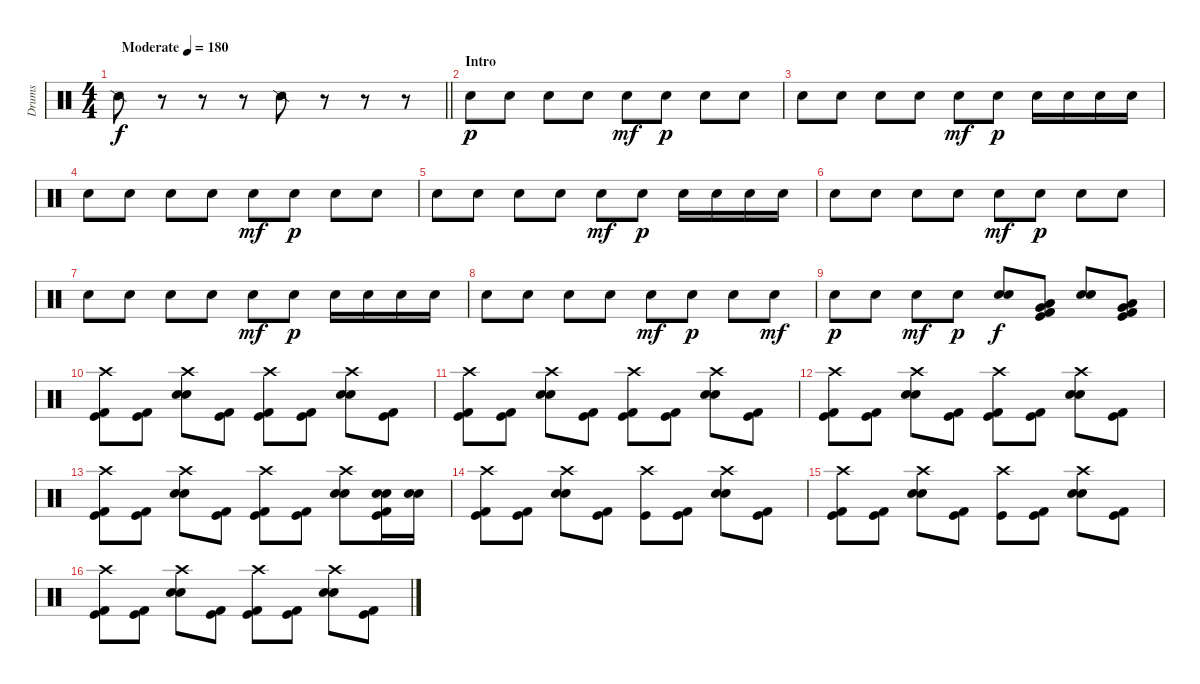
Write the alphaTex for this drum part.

\track ("Drums" "Drums") {instrument percussion}
\staff {score}
\articulation defaults
\ts (4 4)
\tempo (180 "Moderate")
\clef neutral
\barLineRight lightlight
\ks c "Snare (side stick) 2".8{dy f}
r.8 r.8 r.8 "Snare (side stick) 2".8 r.8 r.8 r.8 |
\section ("" "Intro")
"Snare (hit) 2".8{dy p} "Snare (hit) 2".8 "Snare (hit) 2".8 "Snare (hit) 2".8 "Snare (hit) 2".8{dy mf} "Snare (hit) 2".8{dy p} "Snare (hit) 2".8 "Snare (hit) 2".8 |
"Snare (hit) 2".8 "Snare (hit) 2".8 "Snare (hit) 2".8 "Snare (hit) 2".8 "Snare (hit) 2".8{dy mf} "Snare (hit) 2".8{dy p} "Snare (hit) 2".16 "Snare (hit) 2".16 "Snare (hit) 2".16 "Snare (hit) 2".16 |
"Snare (hit) 2".8 "Snare (hit) 2".8 "Snare (hit) 2".8 "Snare (hit) 2".8 "Snare (hit) 2".8{dy mf} "Snare (hit) 2".8{dy p} "Snare (hit) 2".8 "Snare (hit) 2".8 |
"Snare (hit) 2".8 "Snare (hit) 2".8 "Snare (hit) 2".8 "Snare (hit) 2".8 "Snare (hit) 2".8{dy mf} "Snare (hit) 2".8{dy p} "Snare (hit) 2".16 "Snare (hit) 2".16 "Snare (hit) 2".16 "Snare (hit) 2".16 |
"Snare (hit) 2".8 "Snare (hit) 2".8 "Snare (hit) 2".8 "Snare (hit) 2".8 "Snare (hit) 2".8{dy mf} "Snare (hit) 2".8{dy p} "Snare (hit) 2".8 "Snare (hit) 2".8 |
"Snare (hit) 2".8 "Snare (hit) 2".8 "Snare (hit) 2".8 "Snare (hit) 2".8 "Snare (hit) 2".8{dy mf} "Snare (hit) 2".8{dy p} "Snare (hit) 2".16 "Snare (hit) 2".16 "Snare (hit) 2".16 "Snare (hit) 2".16 |
"Snare (hit) 2".8 "Snare (hit) 2".8 "Snare (hit) 2".8 "Snare (hit) 2".8 "Snare (hit) 2".8{dy mf} "Snare (hit) 2".8{dy p} "Snare (hit) 2".8 "Snare (hit) 2".8{dy mf} |
"Snare (hit) 2".8{dy p} "Snare (hit) 2".8 "Snare (hit) 2".8{dy mf} "Snare (hit) 2".8{dy p} ("Electric Snare (hit)" "Snare (hit) 2").8{dy f} ("Low Tom (hit)" "Very Low Tom (hit)" "Kick (hit) 2" "Kick (hit)").8 ("Electric Snare (hit)" "Snare (hit) 2").8 ("Very Low Tom (hit)" "Low Floor Tom (hit)" "Kick (hit) 2" "Kick (hit)").8 |
("Kick (hit)" "Crash high (hit)" "Kick (hit) 2").8 ("Kick (hit)" "Kick (hit) 2").8 ("Electric Snare (hit)" "Crash high (hit)" "Snare (hit) 2").8 ("Kick (hit)" "Kick (hit) 2").8 ("Kick (hit)" "Crash high (hit)" "Kick (hit) 2").8 ("Kick (hit)" "Kick (hit) 2").8 ("Electric Snare (hit)" "Snare (hit) 2" "Crash high (hit)").8 ("Kick (hit)" "Kick (hit) 2").8 |
("Kick (hit)" "Crash high (hit)" "Kick (hit) 2").8 ("Kick (hit)" "Kick (hit) 2").8 ("Electric Snare (hit)" "Snare (hit) 2" "Crash high (hit)").8 ("Kick (hit)" "Kick (hit) 2").8 ("Kick (hit)" "Crash high (hit)" "Kick (hit) 2").8 ("Kick (hit)" "Kick (hit) 2").8 ("Electric Snare (hit)" "Snare (hit) 2" "Crash high (hit)").8 ("Kick (hit)" "Kick (hit) 2").8 |
("Kick (hit)" "Crash high (hit)" "Kick (hit) 2").8 ("Kick (hit)" "Kick (hit) 2").8 ("Electric Snare (hit)" "Snare (hit) 2" "Crash high (hit)").8 ("Kick (hit)" "Kick (hit) 2").8 ("Kick (hit)" "Crash high (hit)" "Kick (hit) 2").8 ("Kick (hit)" "Kick (hit) 2").8 ("Electric Snare (hit)" "Snare (hit) 2" "Crash high (hit)").8 ("Kick (hit)" "Kick (hit) 2").8 |
("Kick (hit)" "Crash high (hit)" "Kick (hit) 2").8 ("Kick (hit)" "Kick (hit) 2").8 ("Electric Snare (hit)" "Snare (hit) 2" "Crash high (hit)").8 ("Kick (hit)" "Kick (hit) 2").8 ("Kick (hit)" "Crash high (hit)" "Kick (hit) 2").8 ("Kick (hit)" "Kick (hit) 2").8 ("Electric Snare (hit)" "Snare (hit) 2" "Crash high (hit)").8 ("Snare (hit) 2" "Electric Snare (hit)" "Kick (hit)" "Kick (hit) 2").16 ("Snare (hit) 2" "Electric Snare (hit)").16 |
("Kick (hit)" "Crash high (hit)" "Kick (hit) 2").8 ("Kick (hit)" "Kick (hit) 2").8 ("Electric Snare (hit)" "Snare (hit) 2" "Crash high (hit)").8 ("Kick (hit)" "Kick (hit) 2").8 ("Kick (hit)" "Crash high (hit)").8 ("Kick (hit)" "Kick (hit) 2").8 ("Electric Snare (hit)" "Snare (hit) 2" "Crash high (hit)").8 ("Kick (hit)" "Kick (hit) 2").8 |
("Kick (hit)" "Crash high (hit)" "Kick (hit) 2").8 ("Kick (hit)" "Kick (hit) 2").8 ("Electric Snare (hit)" "Snare (hit) 2" "Crash high (hit)").8 ("Kick (hit)" "Kick (hit) 2").8 ("Kick (hit)" "Crash high (hit)").8 ("Kick (hit)" "Kick (hit) 2").8 ("Electric Snare (hit)" "Snare (hit) 2" "Crash high (hit)").8 ("Kick (hit)" "Kick (hit) 2").8 |
("Kick (hit)" "Crash high (hit)" "Kick (hit) 2").8 ("Kick (hit)" "Kick (hit) 2").8 ("Electric Snare (hit)" "Snare (hit) 2" "Crash high (hit)").8 ("Kick (hit)" "Kick (hit) 2").8 ("Kick (hit)" "Crash high (hit)" "Kick (hit) 2").8 ("Kick (hit)" "Kick (hit) 2").8 ("Electric Snare (hit)" "Snare (hit) 2" "Crash high (hit)").8 ("Kick (hit)" "Kick (hit) 2").8
